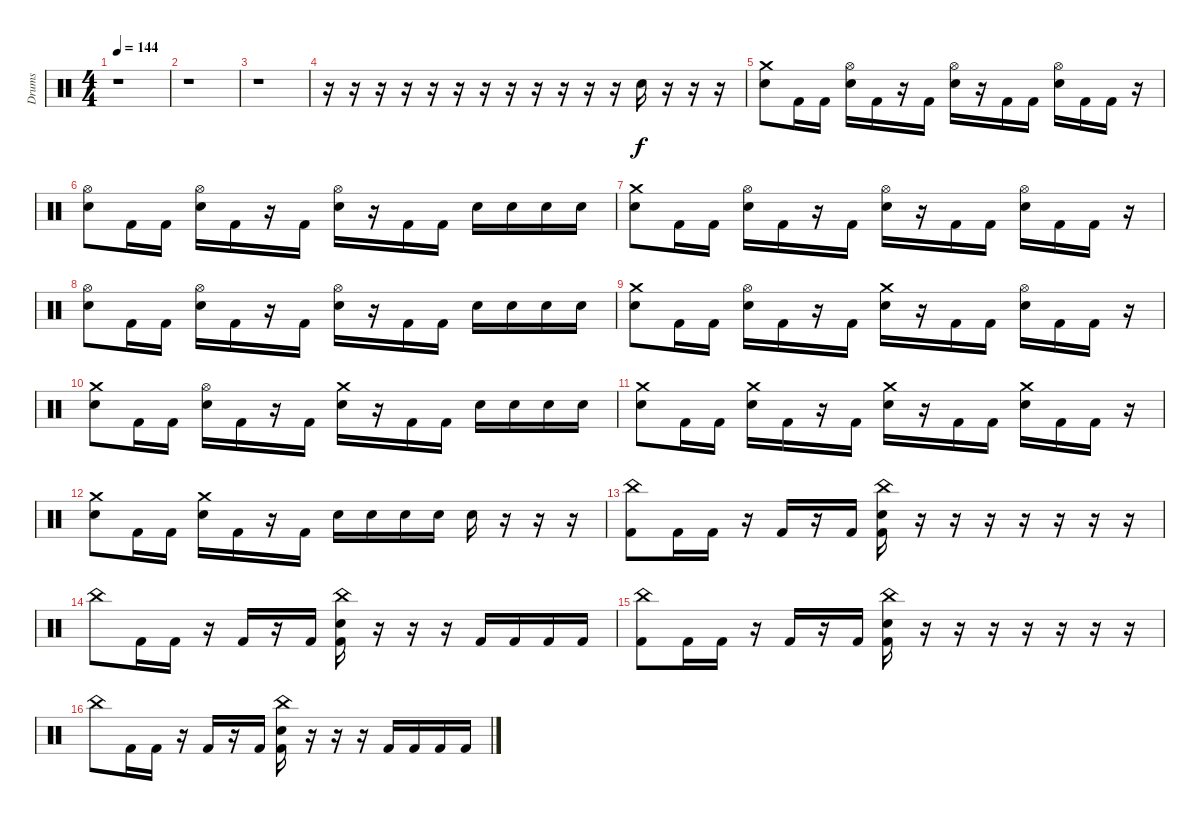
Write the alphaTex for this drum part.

\track ("Drums" "Drums") {instrument percussion}
\staff {score}
\articulation defaults
\ts (4 4)
\tempo 144
\clef neutral
\ks c
r.1{dy f} |
r.1 |
r.1 |
r.16 r.16 r.16 r.16 r.16 r.16 r.16 r.16 r.16 r.16 r.16 r.16 "Electric Snare (hit)".16 r.16 r.16 r.16 |
("Crash medium (hit)" "Electric Snare (hit)").8 "Kick (hit) 2".16 "Kick (hit) 2".16 ("Hi-Hat (open)" "Electric Snare (hit)").16 "Kick (hit) 2".16 r.16 "Kick (hit) 2".16 ("Hi-Hat (open)" "Electric Snare (hit)").16 r.16 "Kick (hit) 2".16 "Kick (hit) 2".16 ("Hi-Hat (open)" "Electric Snare (hit)").16 "Kick (hit) 2".16 "Kick (hit) 2".16 r.16 |
("Hi-Hat (open)" "Electric Snare (hit)").8 "Kick (hit) 2".16 "Kick (hit) 2".16 ("Hi-Hat (open)" "Electric Snare (hit)").16 "Kick (hit) 2".16 r.16 "Kick (hit) 2".16 ("Hi-Hat (open)" "Electric Snare (hit)").16 r.16 "Kick (hit) 2".16 "Kick (hit) 2".16 "Electric Snare (hit)".16 "Electric Snare (hit)".16 "Electric Snare (hit)".16 "Electric Snare (hit)".16 |
("Crash medium (hit)" "Electric Snare (hit)").8 "Kick (hit) 2".16 "Kick (hit) 2".16 ("Hi-Hat (open)" "Electric Snare (hit)").16 "Kick (hit) 2".16 r.16 "Kick (hit) 2".16 ("Hi-Hat (open)" "Electric Snare (hit)").16 r.16 "Kick (hit) 2".16 "Kick (hit) 2".16 ("Hi-Hat (open)" "Electric Snare (hit)").16 "Kick (hit) 2".16 "Kick (hit) 2".16 r.16 |
("Hi-Hat (open)" "Electric Snare (hit)").8 "Kick (hit) 2".16 "Kick (hit) 2".16 ("Hi-Hat (open)" "Electric Snare (hit)").16 "Kick (hit) 2".16 r.16 "Kick (hit) 2".16 ("Hi-Hat (open)" "Electric Snare (hit)").16 r.16 "Kick (hit) 2".16 "Kick (hit) 2".16 "Electric Snare (hit)".16 "Electric Snare (hit)".16 "Electric Snare (hit)".16 "Electric Snare (hit)".16 |
("Crash medium (hit)" "Electric Snare (hit)").8 "Kick (hit) 2".16 "Kick (hit) 2".16 ("Hi-Hat (open)" "Electric Snare (hit)").16 "Kick (hit) 2".16 r.16 "Kick (hit) 2".16 ("Crash medium (hit)" "Electric Snare (hit)").16 r.16 "Kick (hit) 2".16 "Kick (hit) 2".16 ("Hi-Hat (open)" "Electric Snare (hit)").16 "Kick (hit) 2".16 "Kick (hit) 2".16 r.16 |
("Crash medium (hit)" "Electric Snare (hit)").8 "Kick (hit) 2".16 "Kick (hit) 2".16 ("Hi-Hat (open)" "Electric Snare (hit)").16 "Kick (hit) 2".16 r.16 "Kick (hit) 2".16 ("Crash medium (hit)" "Electric Snare (hit)").16 r.16 "Kick (hit) 2".16 "Kick (hit) 2".16 "Electric Snare (hit)".16 "Electric Snare (hit)".16 "Electric Snare (hit)".16 "Electric Snare (hit)".16 |
("Crash medium (hit)" "Electric Snare (hit)").8 "Kick (hit) 2".16 "Kick (hit) 2".16 ("Crash medium (hit)" "Electric Snare (hit)").16 "Kick (hit) 2".16 r.16 "Kick (hit) 2".16 ("Crash medium (hit)" "Electric Snare (hit)").16 r.16 "Kick (hit) 2".16 "Kick (hit) 2".16 ("Crash medium (hit)" "Electric Snare (hit)").16 "Kick (hit) 2".16 "Kick (hit) 2".16 r.16 |
("Crash medium (hit)" "Electric Snare (hit)").8 "Kick (hit) 2".16 "Kick (hit) 2".16 ("Crash medium (hit)" "Electric Snare (hit)").16 "Kick (hit) 2".16 r.16 "Kick (hit) 2".16 "Electric Snare (hit)".16 "Electric Snare (hit)".16 "Electric Snare (hit)".16 "Electric Snare (hit)".16 "Electric Snare (hit)".16 r.16 r.16 r.16 |
("China (hit)" "Kick (hit) 2").8 "Kick (hit) 2".16 "Kick (hit) 2".16 r.16 "Kick (hit) 2".16 r.16 "Kick (hit) 2".16 ("China (hit)" "Electric Snare (hit)" "Kick (hit) 2").16 r.16 r.16 r.16 r.16 r.16 r.16 r.16 |
"China (hit)".8 "Kick (hit) 2".16 "Kick (hit) 2".16 r.16 "Kick (hit) 2".16 r.16 "Kick (hit) 2".16 ("China (hit)" "Electric Snare (hit)" "Kick (hit) 2").16 r.16 r.16 r.16 "Kick (hit) 2".16 "Kick (hit) 2".16 "Kick (hit) 2".16 "Kick (hit) 2".16 |
("China (hit)" "Kick (hit) 2").8 "Kick (hit) 2".16 "Kick (hit) 2".16 r.16 "Kick (hit) 2".16 r.16 "Kick (hit) 2".16 ("China (hit)" "Electric Snare (hit)" "Kick (hit) 2").16 r.16 r.16 r.16 r.16 r.16 r.16 r.16 |
"China (hit)".8 "Kick (hit) 2".16 "Kick (hit) 2".16 r.16 "Kick (hit) 2".16 r.16 "Kick (hit) 2".16 ("China (hit)" "Electric Snare (hit)" "Kick (hit) 2").16 r.16 r.16 r.16 "Kick (hit) 2".16 "Kick (hit) 2".16 "Kick (hit) 2".16 "Kick (hit) 2".16
